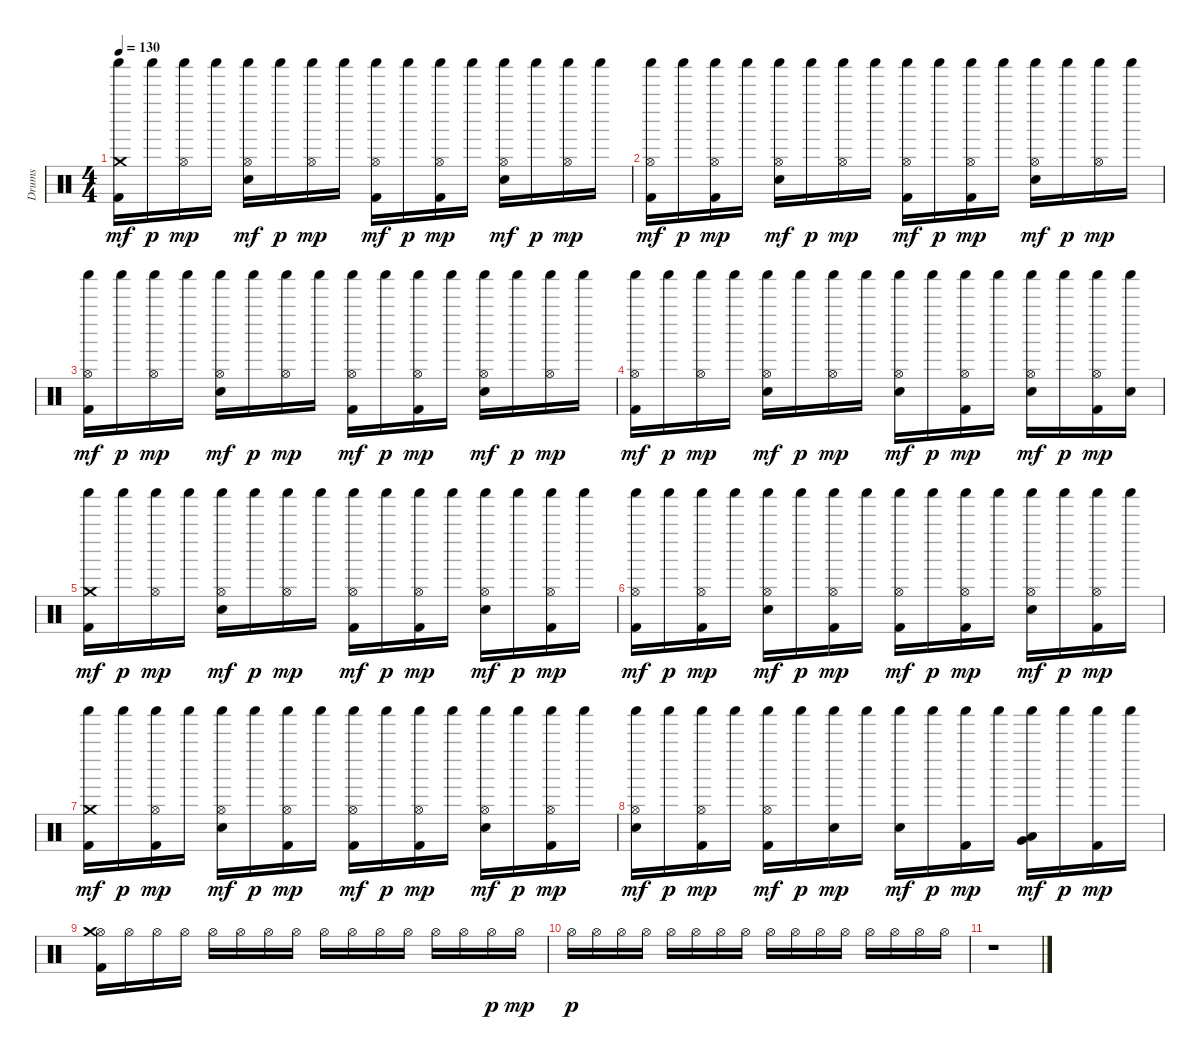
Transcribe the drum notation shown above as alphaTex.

\track ("Drums" "Drums") {instrument percussion}
\staff {score}
\articulation defaults
\ts (4 4)
\tempo 130
\clef neutral
\ks c
("Kick (hit) 2" "Crash medium (hit)" "Shaker (hit)").16{dy mf} "Shaker (hit)".16{dy p} ("Hi-Hat (open)" "Shaker (hit)").16{dy mp} "Shaker (hit)".16 ("Snare (hit) 2" "Hi-Hat (open)" "Shaker (hit)").16{dy mf} "Shaker (hit)".16{dy p} ("Hi-Hat (open)" "Shaker (hit)").16{dy mp} "Shaker (hit)".16 ("Kick (hit) 2" "Hi-Hat (open)" "Shaker (hit)").16{dy mf} "Shaker (hit)".16{dy p} ("Kick (hit) 2" "Hi-Hat (open)" "Shaker (hit)").16{dy mp} "Shaker (hit)".16 ("Snare (hit) 2" "Hi-Hat (open)" "Shaker (hit)").16{dy mf} "Shaker (hit)".16{dy p} ("Hi-Hat (open)" "Shaker (hit)").16{dy mp} "Shaker (hit)".16 |
("Kick (hit) 2" "Hi-Hat (open)" "Shaker (hit)").16{dy mf} "Shaker (hit)".16{dy p} ("Kick (hit) 2" "Hi-Hat (open)" "Shaker (hit)").16{dy mp} "Shaker (hit)".16 ("Snare (hit) 2" "Hi-Hat (open)" "Shaker (hit)").16{dy mf} "Shaker (hit)".16{dy p} ("Hi-Hat (open)" "Shaker (hit)").16{dy mp} "Shaker (hit)".16 ("Kick (hit) 2" "Hi-Hat (open)" "Shaker (hit)").16{dy mf} "Shaker (hit)".16{dy p} ("Kick (hit) 2" "Hi-Hat (open)" "Shaker (hit)").16{dy mp} "Shaker (hit)".16 ("Snare (hit) 2" "Hi-Hat (open)" "Shaker (hit)").16{dy mf} "Shaker (hit)".16{dy p} ("Hi-Hat (open)" "Shaker (hit)").16{dy mp} "Shaker (hit)".16 |
("Kick (hit) 2" "Hi-Hat (open)" "Shaker (hit)").16{dy mf} "Shaker (hit)".16{dy p} ("Hi-Hat (open)" "Shaker (hit)").16{dy mp} "Shaker (hit)".16 ("Snare (hit) 2" "Hi-Hat (open)" "Shaker (hit)").16{dy mf} "Shaker (hit)".16{dy p} ("Hi-Hat (open)" "Shaker (hit)").16{dy mp} "Shaker (hit)".16 ("Kick (hit) 2" "Hi-Hat (open)" "Shaker (hit)").16{dy mf} "Shaker (hit)".16{dy p} ("Kick (hit) 2" "Hi-Hat (open)" "Shaker (hit)").16{dy mp} "Shaker (hit)".16 ("Snare (hit) 2" "Hi-Hat (open)" "Shaker (hit)").16{dy mf} "Shaker (hit)".16{dy p} ("Hi-Hat (open)" "Shaker (hit)").16{dy mp} "Shaker (hit)".16 |
("Kick (hit) 2" "Hi-Hat (open)" "Shaker (hit)").16{dy mf} "Shaker (hit)".16{dy p} ("Hi-Hat (open)" "Shaker (hit)").16{dy mp} "Shaker (hit)".16 ("Snare (hit) 2" "Hi-Hat (open)" "Shaker (hit)").16{dy mf} "Shaker (hit)".16{dy p} ("Hi-Hat (open)" "Shaker (hit)").16{dy mp} "Shaker (hit)".16 ("Snare (hit) 2" "Hi-Hat (open)" "Shaker (hit)").16{dy mf} "Shaker (hit)".16{dy p} ("Kick (hit) 2" "Hi-Hat (open)" "Shaker (hit)").16{dy mp} "Shaker (hit)".16 ("Snare (hit) 2" "Hi-Hat (open)" "Shaker (hit)").16{dy mf} "Shaker (hit)".16{dy p} ("Kick (hit) 2" "Hi-Hat (open)" "Shaker (hit)").16{dy mp} ("Snare (hit) 2" "Shaker (hit)").16 |
("Kick (hit) 2" "Crash medium (hit)" "Shaker (hit)").16{dy mf} "Shaker (hit)".16{dy p} ("Hi-Hat (open)" "Shaker (hit)").16{dy mp} "Shaker (hit)".16 ("Snare (hit) 2" "Hi-Hat (open)" "Shaker (hit)").16{dy mf} "Shaker (hit)".16{dy p} ("Hi-Hat (open)" "Shaker (hit)").16{dy mp} "Shaker (hit)".16 ("Kick (hit) 2" "Hi-Hat (open)" "Shaker (hit)").16{dy mf} "Shaker (hit)".16{dy p} ("Kick (hit) 2" "Hi-Hat (open)" "Shaker (hit)").16{dy mp} "Shaker (hit)".16 ("Snare (hit) 2" "Hi-Hat (open)" "Shaker (hit)").16{dy mf} "Shaker (hit)".16{dy p} ("Kick (hit) 2" "Hi-Hat (open)" "Shaker (hit)").16{dy mp} "Shaker (hit)".16 |
("Kick (hit) 2" "Hi-Hat (open)" "Shaker (hit)").16{dy mf} "Shaker (hit)".16{dy p} ("Kick (hit) 2" "Hi-Hat (open)" "Shaker (hit)").16{dy mp} "Shaker (hit)".16 ("Snare (hit) 2" "Hi-Hat (open)" "Shaker (hit)").16{dy mf} "Shaker (hit)".16{dy p} ("Kick (hit) 2" "Hi-Hat (open)" "Shaker (hit)").16{dy mp} "Shaker (hit)".16 ("Kick (hit) 2" "Hi-Hat (open)" "Shaker (hit)").16{dy mf} "Shaker (hit)".16{dy p} ("Kick (hit) 2" "Hi-Hat (open)" "Shaker (hit)").16{dy mp} "Shaker (hit)".16 ("Snare (hit) 2" "Hi-Hat (open)" "Shaker (hit)").16{dy mf} "Shaker (hit)".16{dy p} ("Kick (hit) 2" "Hi-Hat (open)" "Shaker (hit)").16{dy mp} "Shaker (hit)".16 |
("Kick (hit) 2" "Crash medium (hit)" "Shaker (hit)").16{dy mf} "Shaker (hit)".16{dy p} ("Kick (hit) 2" "Hi-Hat (open)" "Shaker (hit)").16{dy mp} "Shaker (hit)".16 ("Snare (hit) 2" "Hi-Hat (open)" "Shaker (hit)").16{dy mf} "Shaker (hit)".16{dy p} ("Kick (hit) 2" "Hi-Hat (open)" "Shaker (hit)").16{dy mp} "Shaker (hit)".16 ("Kick (hit) 2" "Hi-Hat (open)" "Shaker (hit)").16{dy mf} "Shaker (hit)".16{dy p} ("Kick (hit) 2" "Hi-Hat (open)" "Shaker (hit)").16{dy mp} "Shaker (hit)".16 ("Snare (hit) 2" "Hi-Hat (open)" "Shaker (hit)").16{dy mf} "Shaker (hit)".16{dy p} ("Kick (hit) 2" "Hi-Hat (open)" "Shaker (hit)").16{dy mp} "Shaker (hit)".16 |
("Snare (hit) 2" "Hi-Hat (open)" "Shaker (hit)").16{dy mf} "Shaker (hit)".16{dy p} ("Kick (hit) 2" "Hi-Hat (open)" "Shaker (hit)").16{dy mp} "Shaker (hit)".16 ("Kick (hit) 2" "Hi-Hat (open)" "Shaker (hit)").16{dy mf} "Shaker (hit)".16{dy p} ("Snare (hit) 2" "Shaker (hit)").16{dy mp} "Shaker (hit)".16 ("Snare (hit) 2" "Shaker (hit)").16{dy mf} "Shaker (hit)".16{dy p} ("Kick (hit) 2" "Shaker (hit)").16{dy mp} "Shaker (hit)".16 ("Very Low Tom (hit)" "Low Tom (hit)" "Shaker (hit)").16{dy mf} "Shaker (hit)".16{dy p} ("Kick (hit) 2" "Shaker (hit)").16{dy mp} "Shaker (hit)".16 |
("Kick (hit) 2" "Hi-Hat (open)" "Crash medium (hit)").16 "Hi-Hat (open)".16 "Hi-Hat (open)".16 "Hi-Hat (open)".16 "Hi-Hat (open)".16 "Hi-Hat (open)".16 "Hi-Hat (open)".16 "Hi-Hat (open)".16 "Hi-Hat (open)".16 "Hi-Hat (open)".16 "Hi-Hat (open)".16 "Hi-Hat (open)".16 "Hi-Hat (open)".16 "Hi-Hat (open)".16 "Hi-Hat (open)".16{dy p} "Hi-Hat (open)".16{dy mp} |
"Hi-Hat (open)".16{dy p} "Hi-Hat (open)".16 "Hi-Hat (open)".16 "Hi-Hat (open)".16 "Hi-Hat (open)".16 "Hi-Hat (open)".16 "Hi-Hat (open)".16 "Hi-Hat (open)".16 "Hi-Hat (open)".16 "Hi-Hat (open)".16 "Hi-Hat (open)".16 "Hi-Hat (open)".16 "Hi-Hat (open)".16 "Hi-Hat (open)".16 "Hi-Hat (open)".16 "Hi-Hat (open)".16 |
r.1
